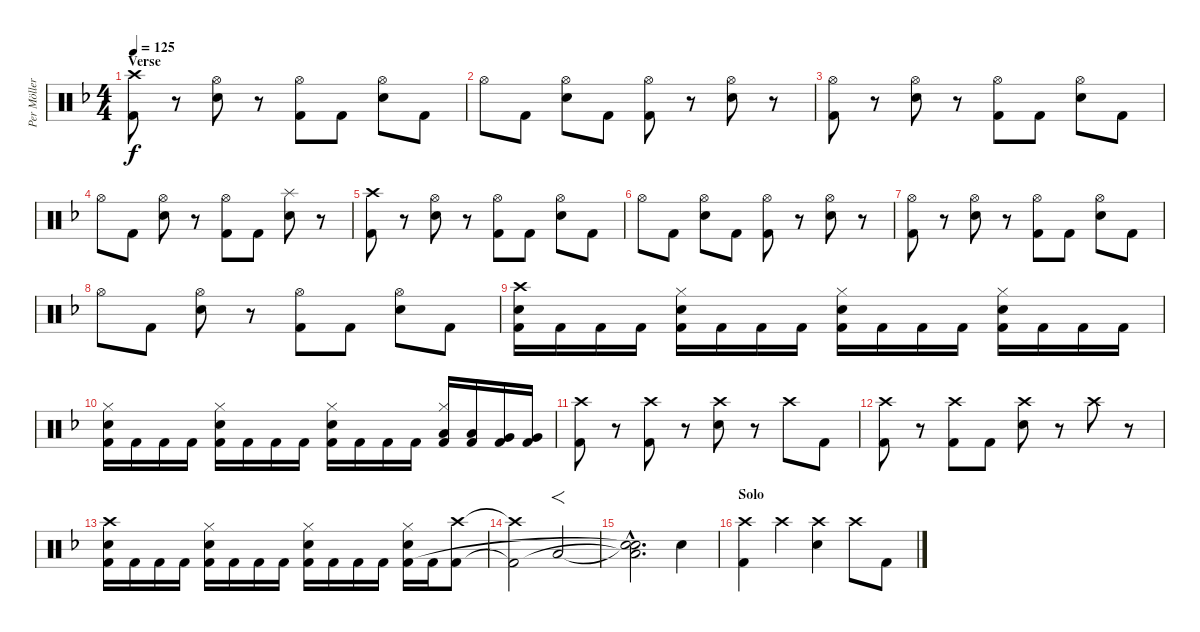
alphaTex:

\track ("Per Möller Jensen" "Per Möller") {instrument percussion}
\staff {score}
\articulation defaults
\ts (4 4)
\section ("" "Verse")
\tempo 125
\clef neutral
\ks dminor
("Crash high (hit)" "Kick (hit) 2").8{dy f} r.8 ("Hi-Hat (open)" "Electric Snare (hit)").8 r.8 ("Hi-Hat (open)" "Kick (hit) 2").8 "Kick (hit) 2".8 ("Hi-Hat (open)" "Electric Snare (hit)").8 "Kick (hit) 2".8 |
"Hi-Hat (open)".8 "Kick (hit) 2".8 ("Hi-Hat (open)" "Electric Snare (hit)").8 "Kick (hit) 2".8 ("Hi-Hat (open)" "Kick (hit) 2").8 r.8 ("Hi-Hat (open)" "Electric Snare (hit)").8 r.8 |
("Hi-Hat (open)" "Kick (hit) 2").8 r.8 ("Hi-Hat (open)" "Electric Snare (hit)").8 r.8 ("Hi-Hat (open)" "Kick (hit) 2").8 "Kick (hit) 2".8 ("Hi-Hat (open)" "Electric Snare (hit)").8 "Kick (hit) 2".8 |
"Hi-Hat (open)".8 "Kick (hit) 2".8 ("Hi-Hat (open)" "Electric Snare (hit)").8 r.8 ("Hi-Hat (open)" "Kick (hit) 2").8 "Kick (hit) 2".8 ("Splash (hit)" "Electric Snare (hit)").8 r.8 |
("Crash high (hit)" "Kick (hit) 2").8 r.8 ("Hi-Hat (open)" "Electric Snare (hit)").8 r.8 ("Hi-Hat (open)" "Kick (hit) 2").8 "Kick (hit) 2".8 ("Hi-Hat (open)" "Electric Snare (hit)").8 "Kick (hit) 2".8 |
"Hi-Hat (open)".8 "Kick (hit) 2".8 ("Hi-Hat (open)" "Electric Snare (hit)").8 "Kick (hit) 2".8 ("Hi-Hat (open)" "Kick (hit) 2").8 r.8 ("Hi-Hat (open)" "Electric Snare (hit)").8 r.8 |
("Hi-Hat (open)" "Kick (hit) 2").8 r.8 ("Hi-Hat (open)" "Electric Snare (hit)").8 r.8 ("Hi-Hat (open)" "Kick (hit) 2").8 "Kick (hit) 2".8 ("Hi-Hat (open)" "Electric Snare (hit)").8 "Kick (hit) 2".8 |
"Hi-Hat (open)".8 "Kick (hit) 2".8 ("Hi-Hat (open)" "Electric Snare (hit)").8 r.8 ("Hi-Hat (open)" "Kick (hit) 2").8 "Kick (hit) 2".8 ("Hi-Hat (open)" "Electric Snare (hit)").8 "Kick (hit) 2".8 |
("Crash high (hit)" "Electric Snare (hit)" "Kick (hit) 2").16 "Kick (hit) 2".16 "Kick (hit) 2".16 "Kick (hit) 2".16 ("Hi-Hat (closed)" "Electric Snare (hit)" "Kick (hit) 2").16 "Kick (hit) 2".16 "Kick (hit) 2".16 "Kick (hit) 2".16 ("Hi-Hat (closed)" "Electric Snare (hit)" "Kick (hit) 2").16 "Kick (hit) 2".16 "Kick (hit) 2".16 "Kick (hit) 2".16 ("Hi-Hat (closed)" "Electric Snare (hit)" "Kick (hit) 2").16 "Kick (hit) 2".16 "Kick (hit) 2".16 "Kick (hit) 2".16 |
("Hi-Hat (closed)" "Electric Snare (hit)" "Kick (hit) 2").16 "Kick (hit) 2".16 "Kick (hit) 2".16 "Kick (hit) 2".16 ("Hi-Hat (closed)" "Electric Snare (hit)" "Kick (hit) 2").16 "Kick (hit) 2".16 "Kick (hit) 2".16 "Kick (hit) 2".16 ("Hi-Hat (closed)" "Electric Snare (hit)" "Kick (hit) 2").16 "Kick (hit) 2".16 "Kick (hit) 2".16 "Kick (hit) 2".16 ("Hi-Hat (closed)" "Low Tom (hit)" "Kick (hit) 2").16 ("Low Tom (hit)" "Kick (hit) 2").16 ("Very Low Tom (hit)" "Kick (hit) 2").16 ("Very Low Tom (hit)" "Kick (hit) 2").16 |
("Crash high (hit)" "Kick (hit) 2").8 r.8 ("Crash high (hit)" "Kick (hit) 2").8 r.8 ("Crash high (hit)" "Electric Snare (hit)").8 r.8 "Crash high (hit)".8 "Kick (hit) 2".8 |
("Crash high (hit)" "Kick (hit) 2").8 r.8 ("Crash high (hit)" "Kick (hit) 2").8 "Kick (hit) 2".8 ("Crash high (hit)" "Electric Snare (hit)").8 r.8 "Crash high (hit)".8 r.8 |
("Crash high (hit)" "Electric Snare (hit)" "Kick (hit) 2").16 "Kick (hit) 2".16 "Kick (hit) 2".16 "Kick (hit) 2".16 ("Hi-Hat (closed)" "Electric Snare (hit)" "Kick (hit) 2").16 "Kick (hit) 2".16 "Kick (hit) 2".16 "Kick (hit) 2".16 ("Hi-Hat (closed)" "Electric Snare (hit)" "Kick (hit) 2").16 "Kick (hit) 2".16 "Kick (hit) 2".16 "Kick (hit) 2".16 ("Hi-Hat (closed)" "Electric Snare (hit)" "Kick (hit) 2").16 "Kick (hit) 2".16 ("Crash high (hit)" "Kick (hit) 2").8 |
("Crash high (hit)"{t} "Kick (hit) 2"{t}).2 "Low Floor Tom (hit)"{tr (41 32)}.2{f} |
("Snare (hit)"{hac t} "Low Floor Tom (hit)"{hac t} "Snare (hit)"{hac t}).2{d} "Electric Snare (hit)".4 |
\section ("" "Solo")
("Crash high (hit)" "Kick (hit) 2").4 "Crash high (hit)".4 ("Crash high (hit)" "Electric Snare (hit)").4 "Crash high (hit)".8 "Kick (hit) 2".8
